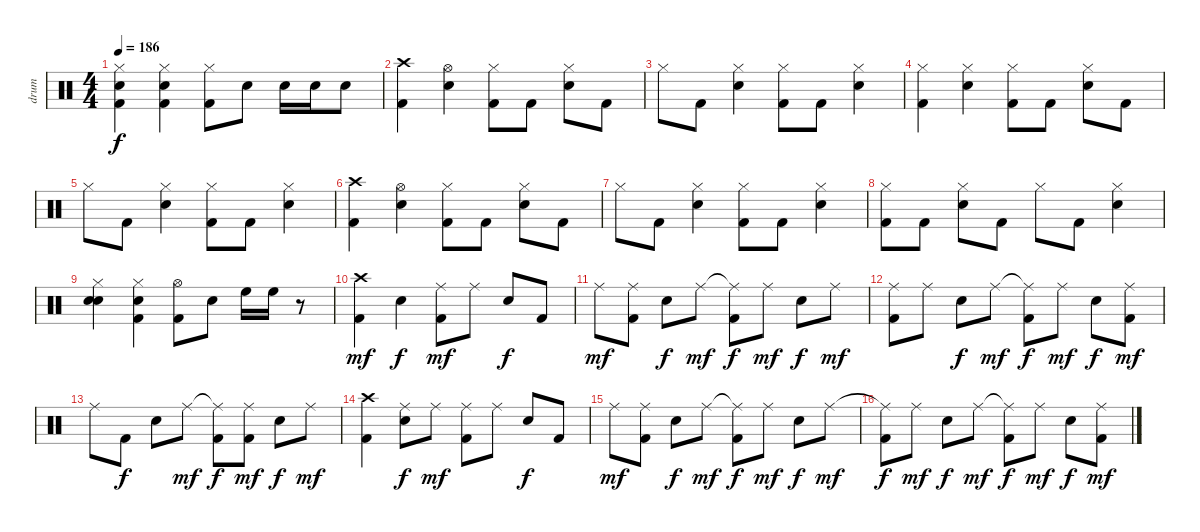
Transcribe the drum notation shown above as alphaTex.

\track ("drum" "drum") {instrument percussion}
\staff {score}
\articulation defaults
\ts (4 4)
\tempo 186
\clef neutral
\ks c
("Hi-Hat (closed)" "Snare (hit) 2" "Kick (hit) 2").4{dy f} ("Hi-Hat (closed)" "Snare (hit) 2" "Kick (hit) 2").4 ("Hi-Hat (closed)" "Kick (hit) 2").8 "Snare (hit) 2".8 "Snare (hit) 2".16 "Snare (hit) 2".16 "Snare (hit) 2".8 |
("Crash high (hit)" "Kick (hit) 2").4 ("Hi-Hat (open)" "Snare (hit) 2").4 ("Hi-Hat (closed)" "Kick (hit) 2").8 "Kick (hit) 2".8 ("Hi-Hat (closed)" "Snare (hit) 2").8 "Kick (hit) 2".8 |
"Hi-Hat (closed)".8 "Kick (hit) 2".8 ("Hi-Hat (closed)" "Snare (hit) 2").4 ("Hi-Hat (closed)" "Kick (hit) 2").8 "Kick (hit) 2".8 ("Hi-Hat (closed)" "Snare (hit) 2").4 |
("Hi-Hat (closed)" "Kick (hit) 2").4 ("Hi-Hat (closed)" "Snare (hit) 2").4 ("Hi-Hat (closed)" "Kick (hit) 2").8 "Kick (hit) 2".8 ("Hi-Hat (closed)" "Snare (hit) 2").8 "Kick (hit) 2".8 |
"Hi-Hat (closed)".8 "Kick (hit) 2".8 ("Hi-Hat (closed)" "Snare (hit) 2").4 ("Hi-Hat (closed)" "Kick (hit) 2").8 "Kick (hit) 2".8 ("Hi-Hat (closed)" "Snare (hit) 2").4 |
("Crash high (hit)" "Kick (hit) 2").4 ("Hi-Hat (open)" "Snare (hit) 2").4 ("Hi-Hat (closed)" "Kick (hit) 2").8 "Kick (hit) 2".8 ("Hi-Hat (closed)" "Snare (hit) 2").8 "Kick (hit) 2".8 |
"Hi-Hat (closed)".8 "Kick (hit) 2".8 ("Hi-Hat (closed)" "Snare (hit) 2").4 ("Hi-Hat (closed)" "Kick (hit) 2").8 "Kick (hit) 2".8 ("Hi-Hat (closed)" "Snare (hit) 2").4 |
("Hi-Hat (closed)" "Kick (hit) 2").8 "Kick (hit) 2".8 ("Hi-Hat (closed)" "Snare (hit) 2").8 "Kick (hit) 2".8 "Hi-Hat (closed)".8 "Kick (hit) 2".8 ("Hi-Hat (closed)" "Snare (hit) 2").4 |
("Hi-Hat (closed)" "Snare (hit) 2" "Snare (hit) 2").4 ("Hi-Hat (closed)" "Snare (hit) 2" "Kick (hit) 2").4 ("Hi-Hat (open)" "Kick (hit) 2").8 "Snare (hit) 2".8 "High Floor Tom (hit)".16 "High Floor Tom (hit)".16 r.8 |
("Crash high (hit)" "Kick (hit) 2").4{dy mf} "Snare (hit) 2".4{dy f} ("Ride (middle)" "Kick (hit) 2").8{dy mf} "Ride (middle)".8 "Snare (hit) 2".8{dy f} "Kick (hit) 2".8 |
"Ride (middle)".8{dy mf} ("Ride (middle)" "Kick (hit) 2").8 "Snare (hit) 2".8{dy f} "Ride (middle)".8{dy mf} ("Ride (middle)"{t} "Kick (hit) 2").8{dy f} "Ride (middle)".8{dy mf} "Snare (hit) 2".8{dy f} "Ride (middle)".8{dy mf} |
("Ride (middle)" "Kick (hit) 2").8 "Ride (middle)".8 "Snare (hit) 2".8{dy f} "Ride (middle)".8{dy mf} ("Ride (middle)"{t} "Kick (hit) 2").8{dy f} "Ride (middle)".8{dy mf} "Snare (hit) 2".8{dy f} ("Ride (middle)" "Kick (hit) 2").8{dy mf} |
"Ride (middle)".8 "Kick (hit) 2".8{dy f} "Snare (hit) 2".8 "Ride (middle)".8{dy mf} ("Ride (middle)"{t} "Kick (hit) 2").8{dy f} ("Ride (middle)" "Kick (hit) 2").8{dy mf} "Snare (hit) 2".8{dy f} "Ride (middle)".8{dy mf} |
("Crash high (hit)" "Kick (hit) 2").4 ("Ride (middle)" "Snare (hit) 2").8{dy f} "Ride (middle)".8{dy mf} ("Ride (middle)" "Kick (hit) 2").8 "Ride (middle)".8 "Snare (hit) 2".8{dy f} "Kick (hit) 2".8 |
"Ride (middle)".8{dy mf} ("Ride (middle)" "Kick (hit) 2").8 "Snare (hit) 2".8{dy f} "Ride (middle)".8{dy mf} ("Ride (middle)"{t} "Kick (hit) 2").8{dy f} "Ride (middle)".8{dy mf} "Snare (hit) 2".8{dy f} "Ride (middle)".8{dy mf} |
("Ride (middle)"{t} "Kick (hit) 2").8{dy f} "Ride (middle)".8{dy mf} "Snare (hit) 2".8{dy f} "Ride (middle)".8{dy mf} ("Ride (middle)"{t} "Kick (hit) 2").8{dy f} "Ride (middle)".8{dy mf} "Snare (hit) 2".8{dy f} ("Ride (middle)" "Kick (hit) 2").8{dy mf}
